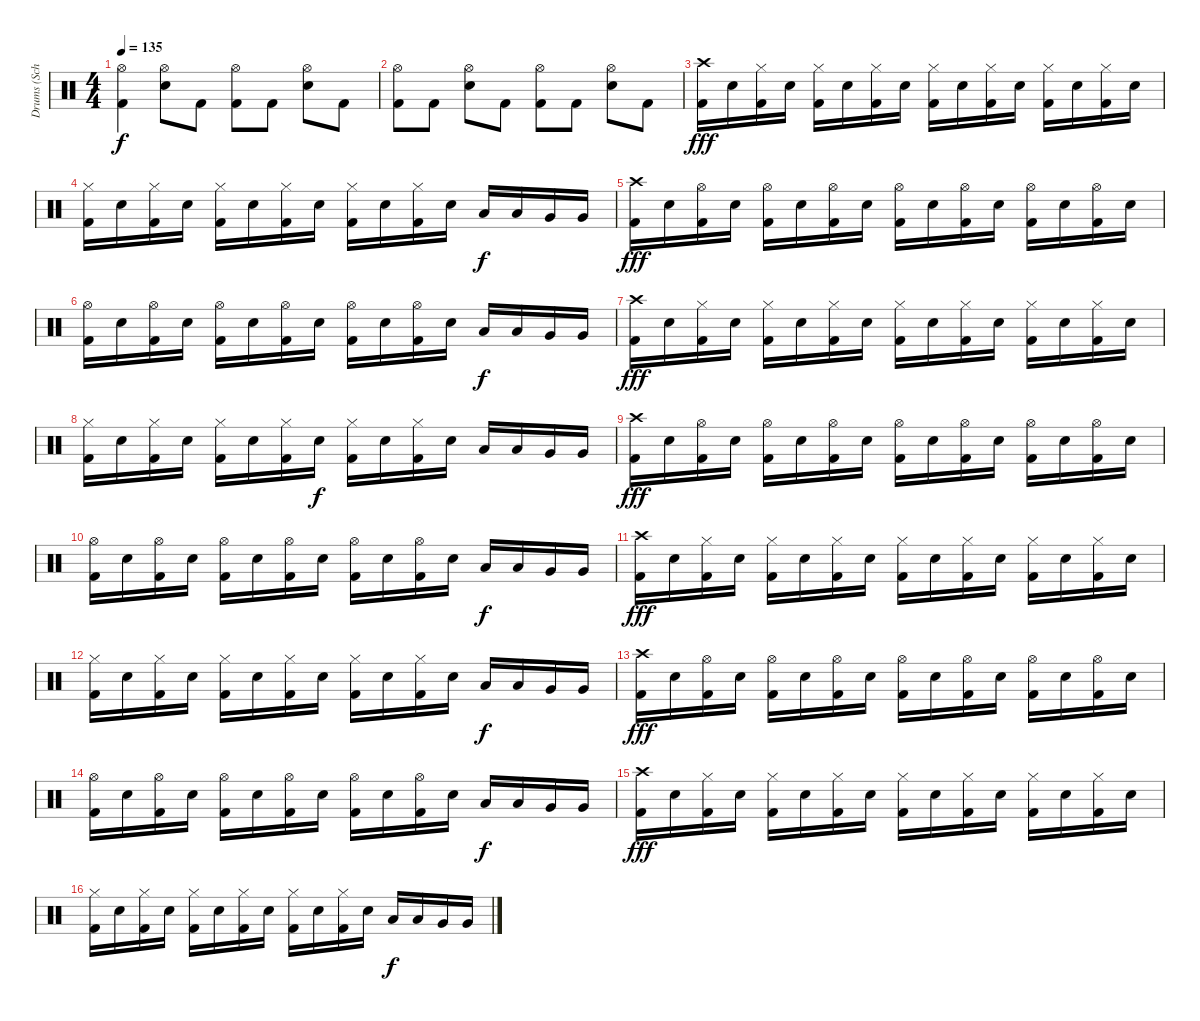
\track ("Drums (Schill)" "Drums (Sch") {instrument percussion}
\staff {score}
\articulation defaults
\ts (4 4)
\tempo 135
\clef neutral
\ks c
("Hi-Hat (open)" "Kick (hit) 2").4{dy f} ("Hi-Hat (open)" "Electric Snare (hit)").8 "Kick (hit) 2".8 ("Hi-Hat (open)" "Kick (hit) 2").8 "Kick (hit) 2".8 ("Hi-Hat (open)" "Electric Snare (hit)").8 "Kick (hit) 2".8 |
("Hi-Hat (open)" "Kick (hit) 2").8 "Kick (hit) 2".8 ("Hi-Hat (open)" "Electric Snare (hit)").8 "Kick (hit) 2".8 ("Hi-Hat (open)" "Kick (hit) 2").8 "Kick (hit) 2".8 ("Hi-Hat (open)" "Electric Snare (hit)").8 "Kick (hit) 2".8 |
("Crash high (hit)" "Kick (hit) 2").16{dy fff} "Electric Snare (hit)".16 ("Hi-Hat (closed)" "Kick (hit) 2").16 "Electric Snare (hit)".16 ("Hi-Hat (closed)" "Kick (hit) 2").16 "Electric Snare (hit)".16 ("Hi-Hat (closed)" "Kick (hit) 2").16 "Electric Snare (hit)".16 ("Hi-Hat (closed)" "Kick (hit) 2").16 "Electric Snare (hit)".16 ("Hi-Hat (closed)" "Kick (hit) 2").16 "Electric Snare (hit)".16 ("Hi-Hat (closed)" "Kick (hit) 2").16 "Electric Snare (hit)".16 ("Hi-Hat (closed)" "Kick (hit) 2").16 "Electric Snare (hit)".16 |
("Hi-Hat (closed)" "Kick (hit) 2").16 "Electric Snare (hit)".16 ("Hi-Hat (closed)" "Kick (hit) 2").16 "Electric Snare (hit)".16 ("Hi-Hat (closed)" "Kick (hit) 2").16 "Electric Snare (hit)".16 ("Hi-Hat (closed)" "Kick (hit) 2").16 "Electric Snare (hit)".16 ("Hi-Hat (closed)" "Kick (hit) 2").16 "Electric Snare (hit)".16 ("Hi-Hat (closed)" "Kick (hit) 2").16 "Electric Snare (hit)".16 "Low Tom (hit)".16{dy f} "Low Tom (hit)".16 "Very Low Tom (hit)".16 "Very Low Tom (hit)".16 |
("Crash high (hit)" "Kick (hit) 2").16{dy fff} "Electric Snare (hit)".16 ("Hi-Hat (open)" "Kick (hit) 2").16 "Electric Snare (hit)".16 ("Hi-Hat (open)" "Kick (hit) 2").16 "Electric Snare (hit)".16 ("Hi-Hat (open)" "Kick (hit) 2").16 "Electric Snare (hit)".16 ("Hi-Hat (open)" "Kick (hit) 2").16 "Electric Snare (hit)".16 ("Hi-Hat (open)" "Kick (hit) 2").16 "Electric Snare (hit)".16 ("Hi-Hat (open)" "Kick (hit) 2").16 "Electric Snare (hit)".16 ("Hi-Hat (open)" "Kick (hit) 2").16 "Electric Snare (hit)".16 |
("Hi-Hat (open)" "Kick (hit) 2").16 "Electric Snare (hit)".16 ("Hi-Hat (open)" "Kick (hit) 2").16 "Electric Snare (hit)".16 ("Hi-Hat (open)" "Kick (hit) 2").16 "Electric Snare (hit)".16 ("Hi-Hat (open)" "Kick (hit) 2").16 "Electric Snare (hit)".16 ("Hi-Hat (open)" "Kick (hit) 2").16 "Electric Snare (hit)".16 ("Hi-Hat (open)" "Kick (hit) 2").16 "Electric Snare (hit)".16 "Low Tom (hit)".16{dy f} "Low Tom (hit)".16 "Very Low Tom (hit)".16 "Very Low Tom (hit)".16 |
("Crash high (hit)" "Kick (hit) 2").16{dy fff} "Electric Snare (hit)".16 ("Hi-Hat (closed)" "Kick (hit) 2").16 "Electric Snare (hit)".16 ("Hi-Hat (closed)" "Kick (hit) 2").16 "Electric Snare (hit)".16 ("Hi-Hat (closed)" "Kick (hit) 2").16 "Electric Snare (hit)".16 ("Hi-Hat (closed)" "Kick (hit) 2").16 "Electric Snare (hit)".16 ("Hi-Hat (closed)" "Kick (hit) 2").16 "Electric Snare (hit)".16 ("Hi-Hat (closed)" "Kick (hit) 2").16 "Electric Snare (hit)".16 ("Hi-Hat (closed)" "Kick (hit) 2").16 "Electric Snare (hit)".16 |
("Hi-Hat (closed)" "Kick (hit) 2").16 "Electric Snare (hit)".16 ("Hi-Hat (closed)" "Kick (hit) 2").16 "Electric Snare (hit)".16 ("Hi-Hat (closed)" "Kick (hit) 2").16 "Electric Snare (hit)".16 ("Hi-Hat (closed)" "Kick (hit) 2").16 "Electric Snare (hit)".16{dy f} ("Hi-Hat (closed)" "Kick (hit) 2").16 "Electric Snare (hit)".16 ("Hi-Hat (closed)" "Kick (hit) 2").16 "Electric Snare (hit)".16 "Low Tom (hit)".16 "Low Tom (hit)".16 "Very Low Tom (hit)".16 "Very Low Tom (hit)".16 |
("Crash high (hit)" "Kick (hit) 2").16{dy fff} "Electric Snare (hit)".16 ("Hi-Hat (open)" "Kick (hit) 2").16 "Electric Snare (hit)".16 ("Hi-Hat (open)" "Kick (hit) 2").16 "Electric Snare (hit)".16 ("Hi-Hat (open)" "Kick (hit) 2").16 "Electric Snare (hit)".16 ("Hi-Hat (open)" "Kick (hit) 2").16 "Electric Snare (hit)".16 ("Hi-Hat (open)" "Kick (hit) 2").16 "Electric Snare (hit)".16 ("Hi-Hat (open)" "Kick (hit) 2").16 "Electric Snare (hit)".16 ("Hi-Hat (open)" "Kick (hit) 2").16 "Electric Snare (hit)".16 |
("Hi-Hat (open)" "Kick (hit) 2").16 "Electric Snare (hit)".16 ("Hi-Hat (open)" "Kick (hit) 2").16 "Electric Snare (hit)".16 ("Hi-Hat (open)" "Kick (hit) 2").16 "Electric Snare (hit)".16 ("Hi-Hat (open)" "Kick (hit) 2").16 "Electric Snare (hit)".16 ("Hi-Hat (open)" "Kick (hit) 2").16 "Electric Snare (hit)".16 ("Hi-Hat (open)" "Kick (hit) 2").16 "Electric Snare (hit)".16 "Low Tom (hit)".16{dy f} "Low Tom (hit)".16 "Very Low Tom (hit)".16 "Very Low Tom (hit)".16 |
("Crash high (hit)" "Kick (hit) 2").16{dy fff} "Electric Snare (hit)".16 ("Hi-Hat (closed)" "Kick (hit) 2").16 "Electric Snare (hit)".16 ("Hi-Hat (closed)" "Kick (hit) 2").16 "Electric Snare (hit)".16 ("Hi-Hat (closed)" "Kick (hit) 2").16 "Electric Snare (hit)".16 ("Hi-Hat (closed)" "Kick (hit) 2").16 "Electric Snare (hit)".16 ("Hi-Hat (closed)" "Kick (hit) 2").16 "Electric Snare (hit)".16 ("Hi-Hat (closed)" "Kick (hit) 2").16 "Electric Snare (hit)".16 ("Hi-Hat (closed)" "Kick (hit) 2").16 "Electric Snare (hit)".16 |
("Hi-Hat (closed)" "Kick (hit) 2").16 "Electric Snare (hit)".16 ("Hi-Hat (closed)" "Kick (hit) 2").16 "Electric Snare (hit)".16 ("Hi-Hat (closed)" "Kick (hit) 2").16 "Electric Snare (hit)".16 ("Hi-Hat (closed)" "Kick (hit) 2").16 "Electric Snare (hit)".16 ("Hi-Hat (closed)" "Kick (hit) 2").16 "Electric Snare (hit)".16 ("Hi-Hat (closed)" "Kick (hit) 2").16 "Electric Snare (hit)".16 "Low Tom (hit)".16{dy f} "Low Tom (hit)".16 "Very Low Tom (hit)".16 "Very Low Tom (hit)".16 |
("Crash high (hit)" "Kick (hit) 2").16{dy fff} "Electric Snare (hit)".16 ("Hi-Hat (open)" "Kick (hit) 2").16 "Electric Snare (hit)".16 ("Hi-Hat (open)" "Kick (hit) 2").16 "Electric Snare (hit)".16 ("Hi-Hat (open)" "Kick (hit) 2").16 "Electric Snare (hit)".16 ("Hi-Hat (open)" "Kick (hit) 2").16 "Electric Snare (hit)".16 ("Hi-Hat (open)" "Kick (hit) 2").16 "Electric Snare (hit)".16 ("Hi-Hat (open)" "Kick (hit) 2").16 "Electric Snare (hit)".16 ("Hi-Hat (open)" "Kick (hit) 2").16 "Electric Snare (hit)".16 |
("Hi-Hat (open)" "Kick (hit) 2").16 "Electric Snare (hit)".16 ("Hi-Hat (open)" "Kick (hit) 2").16 "Electric Snare (hit)".16 ("Hi-Hat (open)" "Kick (hit) 2").16 "Electric Snare (hit)".16 ("Hi-Hat (open)" "Kick (hit) 2").16 "Electric Snare (hit)".16 ("Hi-Hat (open)" "Kick (hit) 2").16 "Electric Snare (hit)".16 ("Hi-Hat (open)" "Kick (hit) 2").16 "Electric Snare (hit)".16 "Low Tom (hit)".16{dy f} "Low Tom (hit)".16 "Very Low Tom (hit)".16 "Very Low Tom (hit)".16 |
("Crash high (hit)" "Kick (hit) 2").16{dy fff} "Electric Snare (hit)".16 ("Hi-Hat (closed)" "Kick (hit) 2").16 "Electric Snare (hit)".16 ("Hi-Hat (closed)" "Kick (hit) 2").16 "Electric Snare (hit)".16 ("Hi-Hat (closed)" "Kick (hit) 2").16 "Electric Snare (hit)".16 ("Hi-Hat (closed)" "Kick (hit) 2").16 "Electric Snare (hit)".16 ("Hi-Hat (closed)" "Kick (hit) 2").16 "Electric Snare (hit)".16 ("Hi-Hat (closed)" "Kick (hit) 2").16 "Electric Snare (hit)".16 ("Hi-Hat (closed)" "Kick (hit) 2").16 "Electric Snare (hit)".16 |
("Hi-Hat (closed)" "Kick (hit) 2").16 "Electric Snare (hit)".16 ("Hi-Hat (closed)" "Kick (hit) 2").16 "Electric Snare (hit)".16 ("Hi-Hat (closed)" "Kick (hit) 2").16 "Electric Snare (hit)".16 ("Hi-Hat (closed)" "Kick (hit) 2").16 "Electric Snare (hit)".16 ("Hi-Hat (closed)" "Kick (hit) 2").16 "Electric Snare (hit)".16 ("Hi-Hat (closed)" "Kick (hit) 2").16 "Electric Snare (hit)".16 "Low Tom (hit)".16{dy f} "Low Tom (hit)".16 "Very Low Tom (hit)".16 "Very Low Tom (hit)".16
